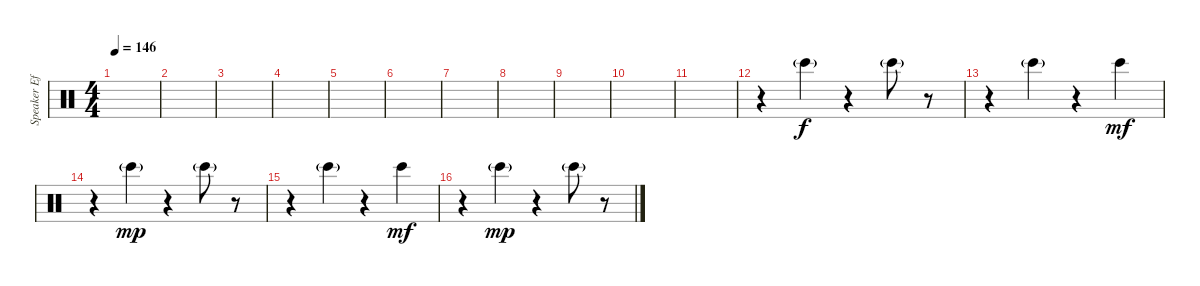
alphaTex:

\track ("Speaker Effects" "Speaker Ef") {instrument percussion}
\staff {score}
\articulation defaults
\ts (4 4)
\tempo 146
\clef neutral
\ks c
|
|
|
|
|
|
|
|
|
|
|
r.4{balance 8} "Bongo High (hit)"{g}.4{balance 4} r.4{balance 8} "Bongo High (hit)"{g}.8{balance 16} r.8{balance 8} |
r.4{balance 8} "Bongo High (hit)"{g}.4{balance 4} r.4{balance 8} "Bongo High (hit)".4{dy mf balance 12} |
r.4{balance 8} "Bongo High (hit)"{g}.4{dy mp balance 4} r.4{balance 8} "Bongo High (hit)"{g}.8{balance 16} r.8{balance 8} |
r.4{balance 8} "Bongo High (hit)"{g}.4{balance 4} r.4{balance 8} "Bongo High (hit)".4{dy mf balance 12} |
r.4{balance 8} "Bongo High (hit)"{g}.4{dy mp balance 4} r.4{balance 8} "Bongo High (hit)"{g}.8{balance 16} r.8{balance 8}
